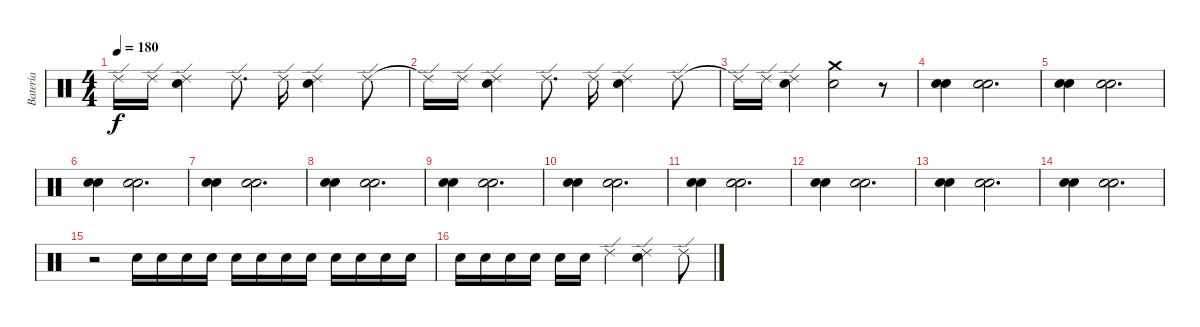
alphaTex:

\track ("Batería" "Batería") {instrument percussion}
\staff {score}
\articulation defaults
\ts (4 4)
\tempo 180
\clef neutral
\ks c "Ride (edge) 2"{t}.16{dy f} "Ride (edge) 2".16
("Ride (edge) 2" "Snare (hit) 2").4 "Ride (edge) 2".8{d} "Ride (edge) 2".16 ("Ride (edge) 2" "Snare (hit) 2").4 "Ride (edge) 2".8 |
"Ride (edge) 2"{t}.16 "Ride (edge) 2".16 ("Ride (edge) 2" "Snare (hit) 2").4 "Ride (edge) 2".8{d} "Ride (edge) 2".16 ("Ride (edge) 2" "Snare (hit) 2").4 "Ride (edge) 2".8 |
"Ride (edge) 2"{t}.16 "Ride (edge) 2".16 ("Ride (edge) 2" "Snare (hit) 2").4 ("Crash medium (hit)" "Snare (hit) 2").2 r.8 |
("Snare (hit) 2" "Snare (hit) 2").4 ("Snare (hit) 2" "Snare (hit) 2").2{d} |
("Snare (hit) 2" "Snare (hit) 2").4 ("Snare (hit) 2" "Snare (hit) 2").2{d} |
("Snare (hit) 2" "Snare (hit) 2").4 ("Snare (hit) 2" "Snare (hit) 2").2{d} |
("Snare (hit) 2" "Snare (hit) 2").4 ("Snare (hit) 2" "Snare (hit) 2").2{d} |
("Snare (hit) 2" "Snare (hit) 2").4 ("Snare (hit) 2" "Snare (hit) 2").2{d} |
("Snare (hit) 2" "Snare (hit) 2").4 ("Snare (hit) 2" "Snare (hit) 2").2{d} |
("Snare (hit) 2" "Snare (hit) 2").4 ("Snare (hit) 2" "Snare (hit) 2").2{d} |
("Snare (hit) 2" "Snare (hit) 2").4 ("Snare (hit) 2" "Snare (hit) 2").2{d} |
("Snare (hit) 2" "Snare (hit) 2").4 ("Snare (hit) 2" "Snare (hit) 2").2{d} |
("Snare (hit) 2" "Snare (hit) 2").4 ("Snare (hit) 2" "Snare (hit) 2").2{d} |
("Snare (hit) 2" "Snare (hit) 2").4 ("Snare (hit) 2" "Snare (hit) 2").2{d} |
r.2 "Snare (hit) 2".16 "Snare (hit) 2".16 "Snare (hit) 2".16 "Snare (hit) 2".16 "Snare (hit) 2".16 "Snare (hit) 2".16 "Snare (hit) 2".16 "Snare (hit) 2".16 "Snare (hit) 2".16 "Snare (hit) 2".16 "Snare (hit) 2".16 "Snare (hit) 2".16 |
"Snare (hit) 2".16 "Snare (hit) 2".16 "Snare (hit) 2".16 "Snare (hit) 2".16 "Snare (hit) 2".16 "Snare (hit) 2".16 "Ride (edge) 2".4 ("Ride (edge) 2" "Snare (hit) 2").4 "Ride (edge) 2".8
